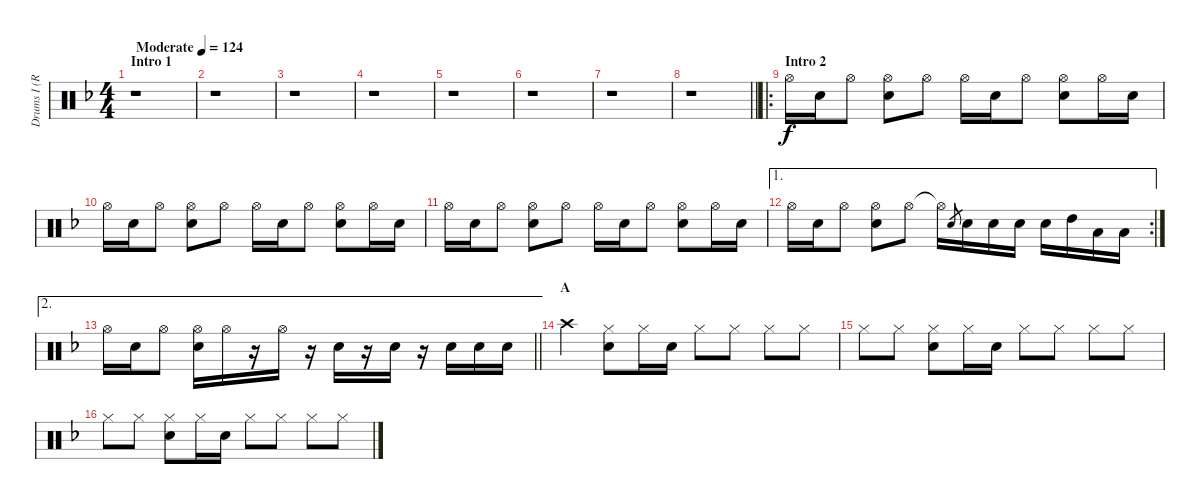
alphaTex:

\track ("Drums I (RUKA)" "Drums I (R") {instrument percussion}
\staff {score}
\articulation defaults
\ts (4 4)
\section ("" "Intro 1")
\tempo (124 "Moderate")
\clef neutral
\ks f
r.1{dy f} |
r.1 |
r.1 |
r.1 |
r.1 |
r.1 |
r.1 |
\barLineRight lightlight
r.1 |
\ro
\section ("" "Intro 2")
"Hi-Hat (open)".16 "Snare (hit) 2".16 "Hi-Hat (open)".8 ("Hi-Hat (open)" "Snare (hit) 2").8 "Hi-Hat (open)".8 "Hi-Hat (open)".16 "Snare (hit) 2".16 "Hi-Hat (open)".8 ("Hi-Hat (open)" "Snare (hit) 2").8 "Hi-Hat (open)".16 "Snare (hit) 2".16 |
"Hi-Hat (open)".16 "Snare (hit) 2".16 "Hi-Hat (open)".8 ("Hi-Hat (open)" "Snare (hit) 2").8 "Hi-Hat (open)".8 "Hi-Hat (open)".16 "Snare (hit) 2".16 "Hi-Hat (open)".8 ("Hi-Hat (open)" "Snare (hit) 2").8 "Hi-Hat (open)".16 "Snare (hit) 2".16 |
"Hi-Hat (open)".16 "Snare (hit) 2".16 "Hi-Hat (open)".8 ("Hi-Hat (open)" "Snare (hit) 2").8 "Hi-Hat (open)".8 "Hi-Hat (open)".16 "Snare (hit) 2".16 "Hi-Hat (open)".8 ("Hi-Hat (open)" "Snare (hit) 2").8 "Hi-Hat (open)".16 "Snare (hit) 2".16 |
\ae 1
\rc 2 "Hi-Hat (open)".16 "Snare (hit) 2".16 "Hi-Hat (open)".8
("Hi-Hat (open)" "Snare (hit) 2").8 "Hi-Hat (open)".8 "Hi-Hat (open)"{t}.16 "Snare (hit) 2".8{gr} "Snare (hit) 2".16 "Snare (hit) 2".16 "Snare (hit) 2".16 "Snare (hit) 2".16 "High Tom (hit)".16 "Low Tom (hit)".16 "Low Floor Tom (hit)".16 |
\ae 2
\barLineRight lightlight "Hi-Hat (open)".16 "Snare (hit) 2".16 "Hi-Hat (open)".8
("Hi-Hat (open)" "Snare (hit) 2").16 "Hi-Hat (open)".16 r.16 "Hi-Hat (open)".16 r.16 "Snare (hit) 2".16 r.16 "Snare (hit) 2".16 r.16 "Snare (hit) 2".16 "Snare (hit) 2".16 "Snare (hit) 2".16 |
\section ("" "A")
"Crash high (hit)".4 ("Hi-Hat (closed)" "Snare (hit) 2").8 "Hi-Hat (closed)".16 "Snare (hit) 2".16 "Hi-Hat (closed)".8 "Hi-Hat (closed)".8 "Hi-Hat (closed)".8 "Hi-Hat (closed)".8 |
"Hi-Hat (closed)".8 "Hi-Hat (closed)".8 ("Hi-Hat (closed)" "Snare (hit) 2").8 "Hi-Hat (closed)".16 "Snare (hit) 2".16 "Hi-Hat (closed)".8 "Hi-Hat (closed)".8 "Hi-Hat (closed)".8 "Hi-Hat (closed)".8 |
"Hi-Hat (closed)".8 "Hi-Hat (closed)".8 ("Hi-Hat (closed)" "Snare (hit) 2").8 "Hi-Hat (closed)".16 "Snare (hit) 2".16 "Hi-Hat (closed)".8 "Hi-Hat (closed)".8 "Hi-Hat (closed)".8 "Hi-Hat (closed)".8
